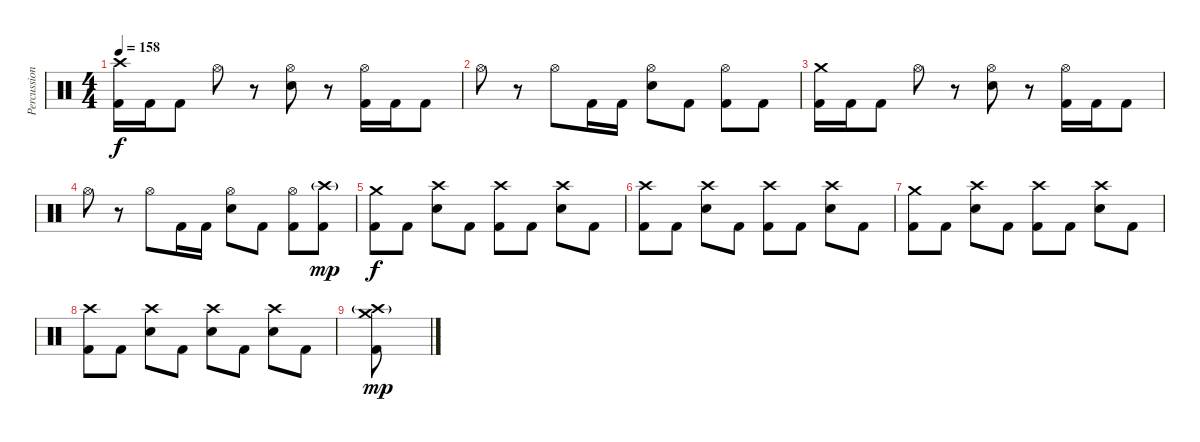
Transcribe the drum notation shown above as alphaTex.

\track ("Percussion" "Percussion") {instrument percussion}
\staff {score}
\articulation defaults
\ts (4 4)
\tempo 158
\clef neutral
\ks c
("Crash high (hit)" "Kick (hit) 2").16{dy f} "Kick (hit) 2".16 "Kick (hit) 2".8 "Hi-Hat (open)".8 r.8 ("Hi-Hat (open)" "Snare (hit) 2").8 r.8 ("Hi-Hat (open)" "Kick (hit) 2").16 "Kick (hit) 2".16 "Kick (hit) 2".8 |
"Hi-Hat (open)".8 r.8 "Hi-Hat (open)".8 "Kick (hit) 2".16 "Kick (hit) 2".16 ("Hi-Hat (open)" "Snare (hit) 2").8 "Kick (hit) 2".8 ("Hi-Hat (open)" "Kick (hit) 2").8 "Kick (hit) 2".8 |
("Crash medium (hit)" "Kick (hit) 2").16 "Kick (hit) 2".16 "Kick (hit) 2".8 "Hi-Hat (open)".8 r.8 ("Hi-Hat (open)" "Snare (hit) 2").8 r.8 ("Hi-Hat (open)" "Kick (hit) 2").16 "Kick (hit) 2".16 "Kick (hit) 2".8 |
"Hi-Hat (open)".8 r.8 "Hi-Hat (open)".8 "Kick (hit) 2".16 "Kick (hit) 2".16 ("Hi-Hat (open)" "Snare (hit) 2").8 "Kick (hit) 2".8 ("Hi-Hat (open)" "Kick (hit) 2").8 ("Crash high (hit)"{g} "Kick (hit) 2").8{dy mp} |
("Crash medium (hit)" "Kick (hit) 2").8{dy f} "Kick (hit) 2".8 ("Crash high (hit)" "Snare (hit) 2").8 "Kick (hit) 2".8 ("Crash high (hit)" "Kick (hit) 2").8 "Kick (hit) 2".8 ("Crash high (hit)" "Snare (hit) 2").8 "Kick (hit) 2".8 |
("Crash high (hit)" "Kick (hit) 2").8 "Kick (hit) 2".8 ("Crash high (hit)" "Snare (hit) 2").8 "Kick (hit) 2".8 ("Crash high (hit)" "Kick (hit) 2").8 "Kick (hit) 2".8 ("Crash high (hit)" "Snare (hit) 2").8 "Kick (hit) 2".8 |
("Crash medium (hit)" "Kick (hit) 2").8 "Kick (hit) 2".8 ("Crash high (hit)" "Snare (hit) 2").8 "Kick (hit) 2".8 ("Crash high (hit)" "Kick (hit) 2").8 "Kick (hit) 2".8 ("Crash high (hit)" "Snare (hit) 2").8 "Kick (hit) 2".8 |
("Crash high (hit)" "Kick (hit) 2").8 "Kick (hit) 2".8 ("Crash high (hit)" "Snare (hit) 2").8 "Kick (hit) 2".8 ("Crash high (hit)" "Snare (hit) 2").8 "Kick (hit) 2".8 ("Crash high (hit)" "Snare (hit) 2").8 "Kick (hit) 2".8 |
("Crash medium (hit)" "Crash high (hit)"{g} "Kick (hit) 2").8{dy mp}
